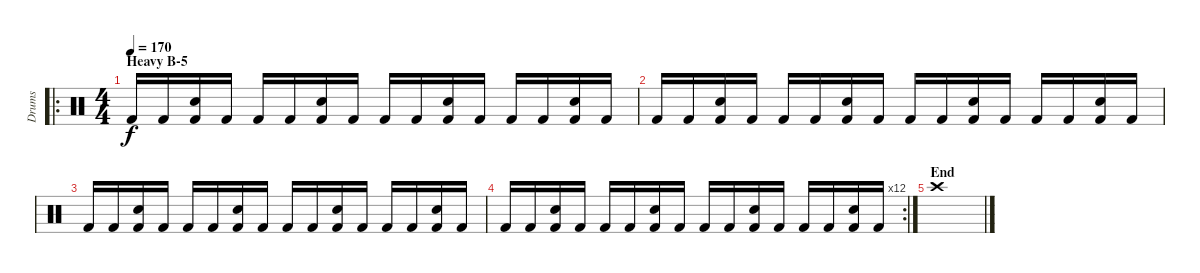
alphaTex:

\track ("Drums" "Drums") {instrument percussion}
\staff {score}
\articulation defaults
\ro
\ts (4 4)
\section ("" "Heavy B-5")
\tempo 170
\clef neutral
\ks c "Kick (hit) 2".16{dy f} "Kick (hit) 2".16
("Electric Snare (hit)" "Kick (hit) 2").16 "Kick (hit) 2".16 "Kick (hit) 2".16 "Kick (hit) 2".16 ("Electric Snare (hit)" "Kick (hit) 2").16 "Kick (hit) 2".16 "Kick (hit) 2".16 "Kick (hit) 2".16 ("Electric Snare (hit)" "Kick (hit) 2").16 "Kick (hit) 2".16 "Kick (hit) 2".16 "Kick (hit) 2".16 ("Electric Snare (hit)" "Kick (hit) 2").16 "Kick (hit) 2".16 |
"Kick (hit) 2".16 "Kick (hit) 2".16 ("Electric Snare (hit)" "Kick (hit) 2").16 "Kick (hit) 2".16 "Kick (hit) 2".16 "Kick (hit) 2".16 ("Electric Snare (hit)" "Kick (hit) 2").16 "Kick (hit) 2".16 "Kick (hit) 2".16 "Kick (hit) 2".16 ("Electric Snare (hit)" "Kick (hit) 2").16 "Kick (hit) 2".16 "Kick (hit) 2".16 "Kick (hit) 2".16 ("Electric Snare (hit)" "Kick (hit) 2").16 "Kick (hit) 2".16 |
"Kick (hit) 2".16 "Kick (hit) 2".16 ("Electric Snare (hit)" "Kick (hit) 2").16 "Kick (hit) 2".16 "Kick (hit) 2".16 "Kick (hit) 2".16 ("Electric Snare (hit)" "Kick (hit) 2").16 "Kick (hit) 2".16 "Kick (hit) 2".16 "Kick (hit) 2".16 ("Electric Snare (hit)" "Kick (hit) 2").16 "Kick (hit) 2".16 "Kick (hit) 2".16 "Kick (hit) 2".16 ("Electric Snare (hit)" "Kick (hit) 2").16 "Kick (hit) 2".16 |
\rc 12 "Kick (hit) 2".16 "Kick (hit) 2".16
("Electric Snare (hit)" "Kick (hit) 2").16 "Kick (hit) 2".16 "Kick (hit) 2".16 "Kick (hit) 2".16 ("Electric Snare (hit)" "Kick (hit) 2").16 "Kick (hit) 2".16 "Kick (hit) 2".16 "Kick (hit) 2".16 ("Electric Snare (hit)" "Kick (hit) 2").16 "Kick (hit) 2".16 "Kick (hit) 2".16 "Kick (hit) 2".16 ("Electric Snare (hit)" "Kick (hit) 2").16 "Kick (hit) 2".16 |
\section ("" "End")
"Crash high (hit)".1
